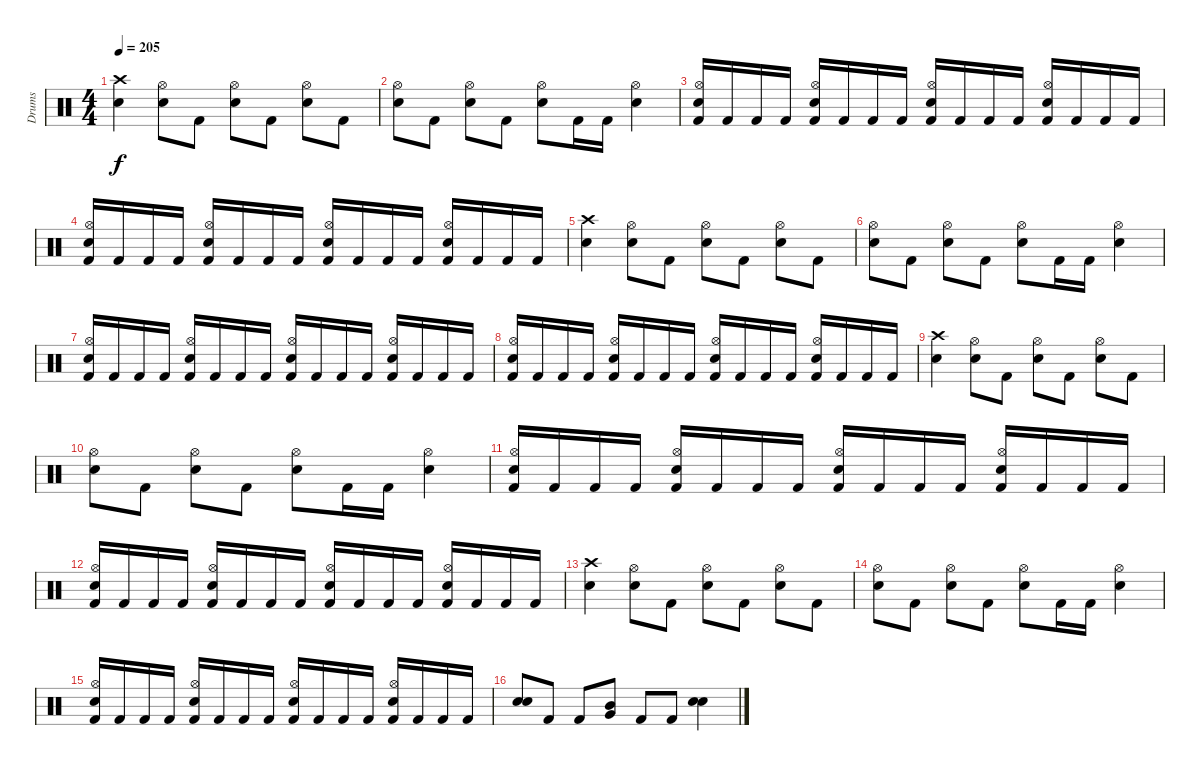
\track ("Drums" "Drums") {instrument percussion}
\staff {score}
\articulation defaults
\ts (4 4)
\tempo 205
\clef neutral
\ks c
("Crash high (hit)" "Snare (hit) 2").4{dy f} ("Hi-Hat (open)" "Snare (hit) 2").8 "Kick (hit) 2".8 ("Hi-Hat (open)" "Snare (hit) 2").8 "Kick (hit) 2".8 ("Hi-Hat (open)" "Snare (hit) 2").8 "Kick (hit) 2".8 |
("Hi-Hat (open)" "Snare (hit) 2").8 "Kick (hit) 2".8 ("Hi-Hat (open)" "Snare (hit) 2").8 "Kick (hit) 2".8 ("Hi-Hat (open)" "Snare (hit) 2").8 "Kick (hit) 2".16 "Kick (hit) 2".16 ("Hi-Hat (open)" "Snare (hit) 2").4 |
("Hi-Hat (open)" "Snare (hit) 2" "Kick (hit) 2").16 "Kick (hit) 2".16 "Kick (hit) 2".16 "Kick (hit) 2".16 ("Hi-Hat (open)" "Snare (hit) 2" "Kick (hit) 2").16 "Kick (hit) 2".16 "Kick (hit) 2".16 "Kick (hit) 2".16 ("Hi-Hat (open)" "Snare (hit) 2" "Kick (hit) 2").16 "Kick (hit) 2".16 "Kick (hit) 2".16 "Kick (hit) 2".16 ("Hi-Hat (open)" "Snare (hit) 2" "Kick (hit) 2").16 "Kick (hit) 2".16 "Kick (hit) 2".16 "Kick (hit) 2".16 |
("Hi-Hat (open)" "Snare (hit) 2" "Kick (hit) 2").16 "Kick (hit) 2".16 "Kick (hit) 2".16 "Kick (hit) 2".16 ("Hi-Hat (open)" "Snare (hit) 2" "Kick (hit) 2").16 "Kick (hit) 2".16 "Kick (hit) 2".16 "Kick (hit) 2".16 ("Hi-Hat (open)" "Snare (hit) 2" "Kick (hit) 2").16 "Kick (hit) 2".16 "Kick (hit) 2".16 "Kick (hit) 2".16 ("Hi-Hat (open)" "Snare (hit) 2" "Kick (hit) 2").16 "Kick (hit) 2".16 "Kick (hit) 2".16 "Kick (hit) 2".16 |
("Crash high (hit)" "Snare (hit) 2").4 ("Hi-Hat (open)" "Snare (hit) 2").8 "Kick (hit) 2".8 ("Hi-Hat (open)" "Snare (hit) 2").8 "Kick (hit) 2".8 ("Hi-Hat (open)" "Snare (hit) 2").8 "Kick (hit) 2".8 |
("Hi-Hat (open)" "Snare (hit) 2").8 "Kick (hit) 2".8 ("Hi-Hat (open)" "Snare (hit) 2").8 "Kick (hit) 2".8 ("Hi-Hat (open)" "Snare (hit) 2").8 "Kick (hit) 2".16 "Kick (hit) 2".16 ("Hi-Hat (open)" "Snare (hit) 2").4 |
("Hi-Hat (open)" "Snare (hit) 2" "Kick (hit) 2").16 "Kick (hit) 2".16 "Kick (hit) 2".16 "Kick (hit) 2".16 ("Hi-Hat (open)" "Snare (hit) 2" "Kick (hit) 2").16 "Kick (hit) 2".16 "Kick (hit) 2".16 "Kick (hit) 2".16 ("Hi-Hat (open)" "Snare (hit) 2" "Kick (hit) 2").16 "Kick (hit) 2".16 "Kick (hit) 2".16 "Kick (hit) 2".16 ("Hi-Hat (open)" "Snare (hit) 2" "Kick (hit) 2").16 "Kick (hit) 2".16 "Kick (hit) 2".16 "Kick (hit) 2".16 |
("Hi-Hat (open)" "Snare (hit) 2" "Kick (hit) 2").16 "Kick (hit) 2".16 "Kick (hit) 2".16 "Kick (hit) 2".16 ("Hi-Hat (open)" "Snare (hit) 2" "Kick (hit) 2").16 "Kick (hit) 2".16 "Kick (hit) 2".16 "Kick (hit) 2".16 ("Hi-Hat (open)" "Snare (hit) 2" "Kick (hit) 2").16 "Kick (hit) 2".16 "Kick (hit) 2".16 "Kick (hit) 2".16 ("Hi-Hat (open)" "Snare (hit) 2" "Kick (hit) 2").16 "Kick (hit) 2".16 "Kick (hit) 2".16 "Kick (hit) 2".16 |
("Crash high (hit)" "Snare (hit) 2").4 ("Hi-Hat (open)" "Snare (hit) 2").8 "Kick (hit) 2".8 ("Hi-Hat (open)" "Snare (hit) 2").8 "Kick (hit) 2".8 ("Hi-Hat (open)" "Snare (hit) 2").8 "Kick (hit) 2".8 |
("Hi-Hat (open)" "Snare (hit) 2").8 "Kick (hit) 2".8 ("Hi-Hat (open)" "Snare (hit) 2").8 "Kick (hit) 2".8 ("Hi-Hat (open)" "Snare (hit) 2").8 "Kick (hit) 2".16 "Kick (hit) 2".16 ("Hi-Hat (open)" "Snare (hit) 2").4 |
("Hi-Hat (open)" "Snare (hit) 2" "Kick (hit) 2").16 "Kick (hit) 2".16 "Kick (hit) 2".16 "Kick (hit) 2".16 ("Hi-Hat (open)" "Snare (hit) 2" "Kick (hit) 2").16 "Kick (hit) 2".16 "Kick (hit) 2".16 "Kick (hit) 2".16 ("Hi-Hat (open)" "Snare (hit) 2" "Kick (hit) 2").16 "Kick (hit) 2".16 "Kick (hit) 2".16 "Kick (hit) 2".16 ("Hi-Hat (open)" "Snare (hit) 2" "Kick (hit) 2").16 "Kick (hit) 2".16 "Kick (hit) 2".16 "Kick (hit) 2".16 |
("Hi-Hat (open)" "Snare (hit) 2" "Kick (hit) 2").16 "Kick (hit) 2".16 "Kick (hit) 2".16 "Kick (hit) 2".16 ("Hi-Hat (open)" "Snare (hit) 2" "Kick (hit) 2").16 "Kick (hit) 2".16 "Kick (hit) 2".16 "Kick (hit) 2".16 ("Hi-Hat (open)" "Snare (hit) 2" "Kick (hit) 2").16 "Kick (hit) 2".16 "Kick (hit) 2".16 "Kick (hit) 2".16 ("Hi-Hat (open)" "Snare (hit) 2" "Kick (hit) 2").16 "Kick (hit) 2".16 "Kick (hit) 2".16 "Kick (hit) 2".16 |
("Crash high (hit)" "Snare (hit) 2").4 ("Hi-Hat (open)" "Snare (hit) 2").8 "Kick (hit) 2".8 ("Hi-Hat (open)" "Snare (hit) 2").8 "Kick (hit) 2".8 ("Hi-Hat (open)" "Snare (hit) 2").8 "Kick (hit) 2".8 |
("Hi-Hat (open)" "Snare (hit) 2").8 "Kick (hit) 2".8 ("Hi-Hat (open)" "Snare (hit) 2").8 "Kick (hit) 2".8 ("Hi-Hat (open)" "Snare (hit) 2").8 "Kick (hit) 2".16 "Kick (hit) 2".16 ("Hi-Hat (open)" "Snare (hit) 2").4 |
("Hi-Hat (open)" "Snare (hit) 2" "Kick (hit) 2").16 "Kick (hit) 2".16 "Kick (hit) 2".16 "Kick (hit) 2".16 ("Hi-Hat (open)" "Snare (hit) 2" "Kick (hit) 2").16 "Kick (hit) 2".16 "Kick (hit) 2".16 "Kick (hit) 2".16 ("Hi-Hat (open)" "Snare (hit) 2" "Kick (hit) 2").16 "Kick (hit) 2".16 "Kick (hit) 2".16 "Kick (hit) 2".16 ("Hi-Hat (open)" "Snare (hit) 2" "Kick (hit) 2").16 "Kick (hit) 2".16 "Kick (hit) 2".16 "Kick (hit) 2".16 |
("Snare (hit) 2" "Snare (hit) 2").8 "Kick (hit) 2".8 "Kick (hit) 2".8 ("Mid Tom (hit)" "Very Low Tom (hit)").8 "Kick (hit) 2".8 "Kick (hit) 2".8 ("Snare (hit) 2" "Snare (hit) 2").4
